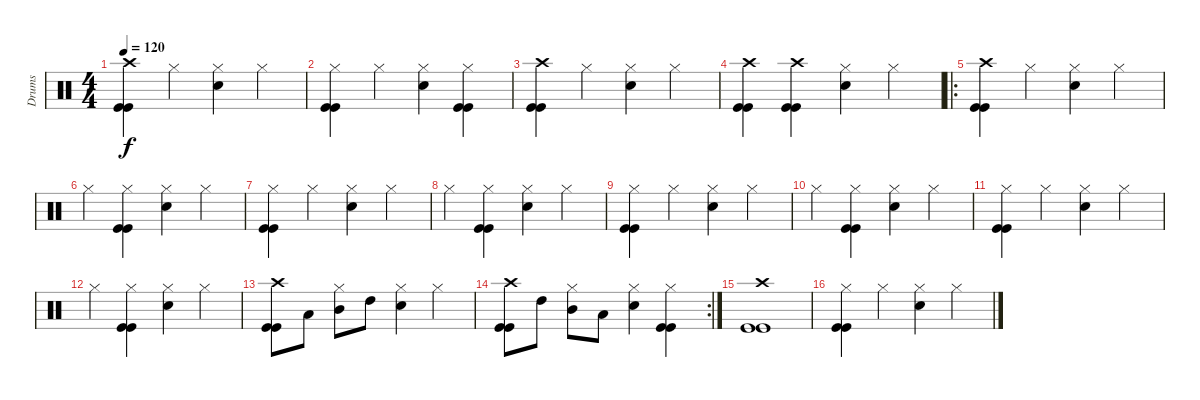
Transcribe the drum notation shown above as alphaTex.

\track ("Drums" "Drums") {instrument percussion}
\staff {score}
\articulation defaults
\ts (4 4)
\tempo 120
\clef neutral
\ks c
("Crash high (hit)" "Kick (hit)" "Kick (hit)").4{dy f} "Hi-Hat (closed)".4 ("Hi-Hat (closed)" "Snare (hit) 2").4 "Hi-Hat (closed)".4 |
("Hi-Hat (closed)" "Kick (hit)" "Kick (hit)").4 "Hi-Hat (closed)".4 ("Hi-Hat (closed)" "Snare (hit) 2").4 ("Hi-Hat (closed)" "Kick (hit)" "Kick (hit)").4 |
("Crash high (hit)" "Kick (hit)" "Kick (hit)").4 "Hi-Hat (closed)".4 ("Hi-Hat (closed)" "Snare (hit) 2").4 "Hi-Hat (closed)".4 |
("Crash high (hit)" "Kick (hit)" "Kick (hit)").4 ("Crash high (hit)" "Kick (hit)" "Kick (hit)").4 ("Hi-Hat (closed)" "Snare (hit) 2").4 "Hi-Hat (closed)".4 |
\ro
("Crash high (hit)" "Kick (hit)" "Kick (hit)").4 "Hi-Hat (closed)".4 ("Hi-Hat (closed)" "Snare (hit) 2").4 "Hi-Hat (closed)".4 |
"Hi-Hat (closed)".4 ("Hi-Hat (closed)" "Kick (hit)" "Kick (hit)").4 ("Hi-Hat (closed)" "Snare (hit) 2").4 "Hi-Hat (closed)".4 |
("Hi-Hat (closed)" "Kick (hit)" "Kick (hit)").4 "Hi-Hat (closed)".4 ("Hi-Hat (closed)" "Snare (hit) 2").4 "Hi-Hat (closed)".4 |
"Hi-Hat (closed)".4 ("Hi-Hat (closed)" "Kick (hit)" "Kick (hit)").4 ("Hi-Hat (closed)" "Snare (hit) 2").4 "Hi-Hat (closed)".4 |
("Hi-Hat (closed)" "Kick (hit)" "Kick (hit)").4 "Hi-Hat (closed)".4 ("Hi-Hat (closed)" "Snare (hit) 2").4 "Hi-Hat (closed)".4 |
"Hi-Hat (closed)".4 ("Hi-Hat (closed)" "Kick (hit)" "Kick (hit)").4 ("Hi-Hat (closed)" "Snare (hit) 2").4 "Hi-Hat (closed)".4 |
("Hi-Hat (closed)" "Kick (hit)" "Kick (hit)").4 "Hi-Hat (closed)".4 ("Hi-Hat (closed)" "Snare (hit) 2").4 "Hi-Hat (closed)".4 |
"Hi-Hat (closed)".4 ("Hi-Hat (closed)" "Kick (hit)" "Kick (hit)").4 ("Hi-Hat (closed)" "Snare (hit) 2").4 "Hi-Hat (closed)".4 |
("Crash high (hit)" "Kick (hit)" "Kick (hit)").8 "Low Tom (hit)".8 ("Hi-Hat (closed)" "Mid Tom (hit)").8 "High Tom (hit)".8 ("Hi-Hat (closed)" "Snare (hit) 2").4 "Hi-Hat (closed)".4 |
\rc 2
("Crash high (hit)" "Kick (hit)" "Kick (hit)").8 "High Tom (hit)".8 ("Hi-Hat (closed)" "Mid Tom (hit)").8 "Low Tom (hit)".8 ("Hi-Hat (closed)" "Snare (hit) 2").4 ("Hi-Hat (closed)" "Kick (hit)" "Kick (hit)").4 |
("Crash high (hit)" "Kick (hit)" "Kick (hit)").1 |
("Hi-Hat (closed)" "Kick (hit)" "Kick (hit)").4 "Hi-Hat (closed)".4 ("Hi-Hat (closed)" "Snare (hit) 2").4 "Hi-Hat (closed)".4
